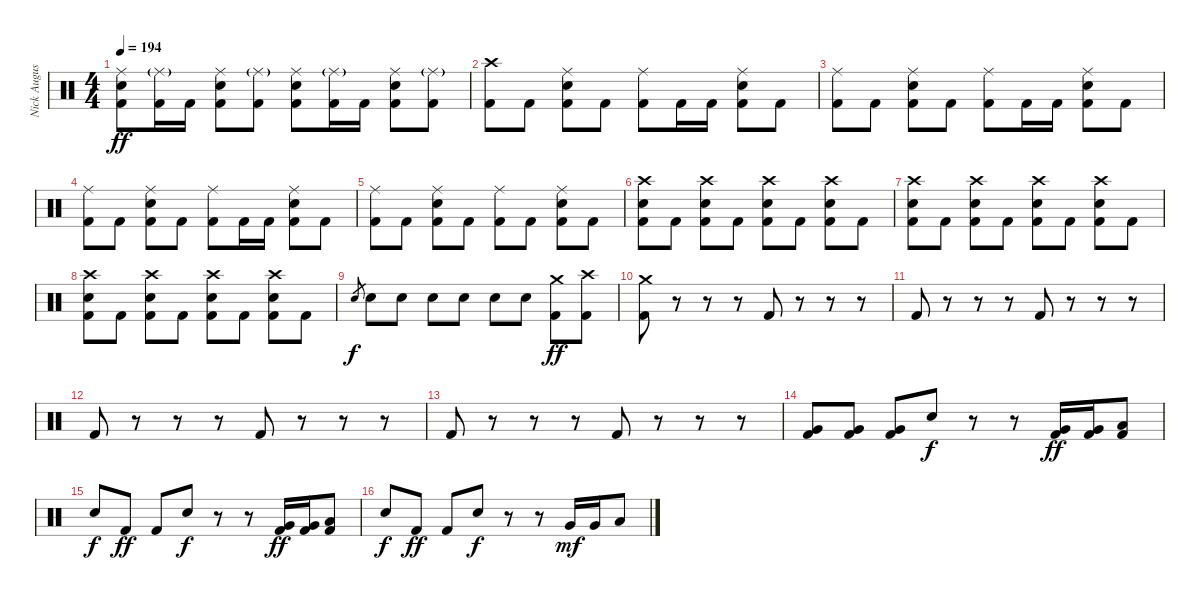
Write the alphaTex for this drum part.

\track ("Nick Augusto" "Nick Augus") {instrument percussion}
\staff {score}
\articulation defaults
\ts (4 4)
\tempo 194
\clef neutral
\ks c
("Ride (middle)" "Electric Snare (hit)" "Kick (hit) 2").8{dy ff} ("Ride (middle)"{g} "Kick (hit) 2").16 "Kick (hit) 2".16 ("Ride (middle)" "Electric Snare (hit)" "Kick (hit) 2").8 ("Ride (middle)"{g} "Kick (hit) 2").8 ("Ride (middle)" "Electric Snare (hit)" "Kick (hit) 2").8 ("Ride (middle)"{g} "Kick (hit) 2").16 "Kick (hit) 2".16 ("Ride (middle)" "Electric Snare (hit)" "Kick (hit) 2").8 ("Ride (middle)"{g} "Kick (hit) 2").8 |
("Crash high (hit)" "Kick (hit) 2").8 "Kick (hit) 2".8 ("Ride (middle)" "Electric Snare (hit)" "Kick (hit) 2").8 "Kick (hit) 2".8 ("Ride (middle)" "Kick (hit) 2").8 "Kick (hit) 2".16 "Kick (hit) 2".16 ("Ride (middle)" "Electric Snare (hit)" "Kick (hit) 2").8 "Kick (hit) 2".8 |
("Ride (middle)" "Kick (hit) 2").8 "Kick (hit) 2".8 ("Ride (middle)" "Electric Snare (hit)" "Kick (hit) 2").8 "Kick (hit) 2".8 ("Ride (middle)" "Kick (hit) 2").8 "Kick (hit) 2".16 "Kick (hit) 2".16 ("Ride (middle)" "Electric Snare (hit)" "Kick (hit) 2").8 "Kick (hit) 2".8 |
("Ride (middle)" "Kick (hit) 2").8 "Kick (hit) 2".8 ("Ride (middle)" "Electric Snare (hit)" "Kick (hit) 2").8 "Kick (hit) 2".8 ("Ride (middle)" "Kick (hit) 2").8 "Kick (hit) 2".16 "Kick (hit) 2".16 ("Ride (middle)" "Electric Snare (hit)" "Kick (hit) 2").8 "Kick (hit) 2".8 |
("Ride (middle)" "Kick (hit) 2").8 "Kick (hit) 2".8 ("Ride (middle)" "Electric Snare (hit)" "Kick (hit) 2").8 "Kick (hit) 2".8 ("Ride (middle)" "Kick (hit) 2").8 "Kick (hit) 2".8 ("Ride (middle)" "Electric Snare (hit)" "Kick (hit) 2").8 "Kick (hit) 2".8 |
("Crash high (hit)" "Electric Snare (hit)" "Kick (hit) 2").8 "Kick (hit) 2".8 ("Crash high (hit)" "Electric Snare (hit)" "Kick (hit) 2").8 "Kick (hit) 2".8 ("Crash high (hit)" "Electric Snare (hit)" "Kick (hit) 2").8 "Kick (hit) 2".8 ("Crash high (hit)" "Electric Snare (hit)" "Kick (hit) 2").8 "Kick (hit) 2".8 |
("Crash high (hit)" "Electric Snare (hit)" "Kick (hit) 2").8 "Kick (hit) 2".8 ("Crash high (hit)" "Electric Snare (hit)" "Kick (hit) 2").8 "Kick (hit) 2".8 ("Crash high (hit)" "Electric Snare (hit)" "Kick (hit) 2").8 "Kick (hit) 2".8 ("Crash high (hit)" "Electric Snare (hit)" "Kick (hit) 2").8 "Kick (hit) 2".8 |
("Crash high (hit)" "Electric Snare (hit)" "Kick (hit) 2").8 "Kick (hit) 2".8 ("Crash high (hit)" "Electric Snare (hit)" "Kick (hit) 2").8 "Kick (hit) 2".8 ("Crash high (hit)" "Electric Snare (hit)" "Kick (hit) 2").8 "Kick (hit) 2".8 ("Crash high (hit)" "Electric Snare (hit)" "Kick (hit) 2").8 "Kick (hit) 2".8 |
"Electric Snare (hit)".8{gr dy f} "Electric Snare (hit)".8 "Electric Snare (hit)".8 "Electric Snare (hit)".8 "Electric Snare (hit)".8 "Electric Snare (hit)".8 "Electric Snare (hit)".8 ("Crash medium (hit)" "Kick (hit) 2").8{dy ff} ("Crash high (hit)" "Kick (hit) 2").8 |
("Crash medium (hit)" "Kick (hit) 2").8 r.8 r.8 r.8 "Kick (hit) 2".8 r.8 r.8 r.8 |
"Kick (hit) 2".8 r.8 r.8 r.8 "Kick (hit) 2".8 r.8 r.8 r.8 |
"Kick (hit) 2".8 r.8 r.8 r.8 "Kick (hit) 2".8 r.8 r.8 r.8 |
"Kick (hit) 2".8 r.8 r.8 r.8 "Kick (hit) 2".8 r.8 r.8 r.8 |
("Very Low Tom (hit)" "Kick (hit) 2").8 ("Very Low Tom (hit)" "Kick (hit) 2").8 ("Very Low Tom (hit)" "Kick (hit) 2").8 "Electric Snare (hit)".8{dy f} r.8 r.8 ("Very Low Tom (hit)" "Kick (hit) 2").16{dy ff} ("Very Low Tom (hit)" "Kick (hit) 2").16 ("Low Tom (hit)" "Kick (hit) 2").8 |
"Electric Snare (hit)".8{dy f} "Kick (hit) 2".8{dy ff} "Kick (hit) 2".8 "Electric Snare (hit)".8{dy f} r.8 r.8 ("Very Low Tom (hit)" "Kick (hit) 2").16{dy ff} ("Very Low Tom (hit)" "Kick (hit) 2").16 ("Low Tom (hit)" "Kick (hit) 2").8 |
"Electric Snare (hit)".8{dy f} "Kick (hit) 2".8{dy ff} "Kick (hit) 2".8 "Electric Snare (hit)".8{dy f} r.8 r.8 "Very Low Tom (hit)".16{dy mf} "Very Low Tom (hit)".16 "Low Tom (hit)".8
